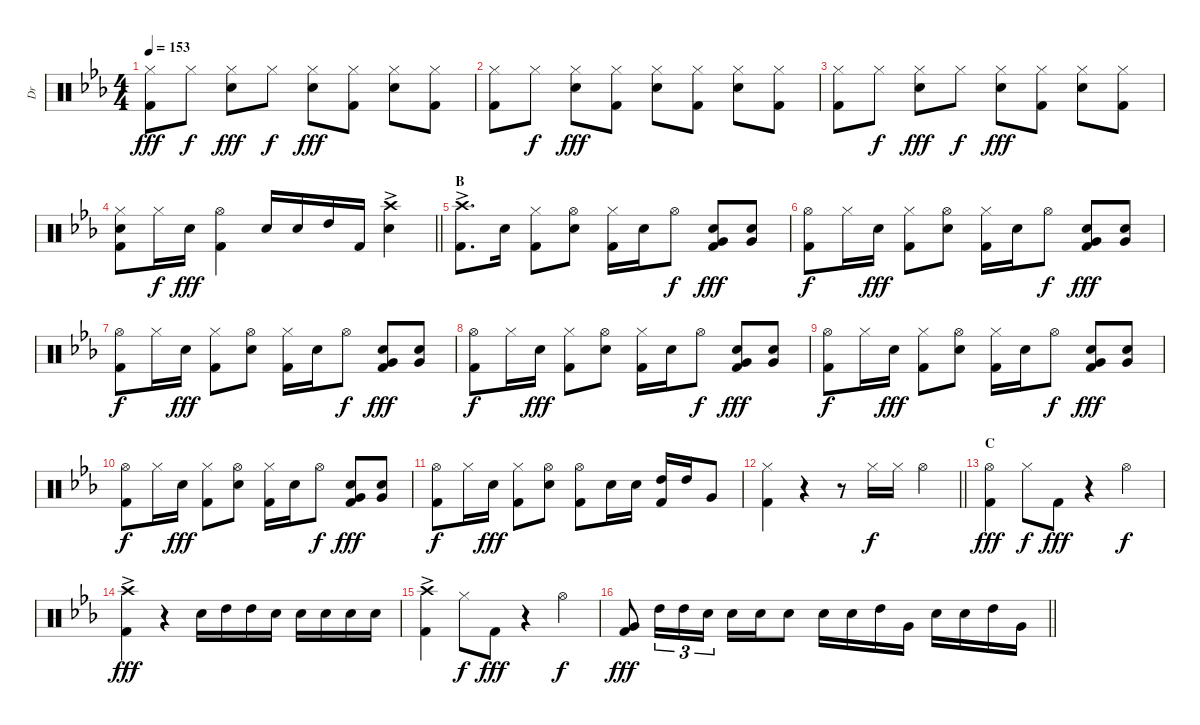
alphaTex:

\track ("Dr" "Dr") {instrument percussion}
\staff {score}
\articulation defaults
\ts (4 4)
\tempo 153
\clef neutral
\ks cminor
("Hi-Hat (closed)" "Kick (hit) 2").8{dy fff} "Hi-Hat (closed)".8{dy f} ("Hi-Hat (closed)" "Electric Snare (hit)").8{dy fff} "Hi-Hat (closed)".8{dy f} ("Hi-Hat (closed)" "Electric Snare (hit)").8{dy fff} ("Hi-Hat (closed)" "Kick (hit) 2").8 ("Hi-Hat (closed)" "Electric Snare (hit)").8 ("Hi-Hat (closed)" "Kick (hit) 2").8 |
("Hi-Hat (closed)" "Kick (hit) 2").8 "Hi-Hat (closed)".8{dy f} ("Hi-Hat (closed)" "Electric Snare (hit)").8{dy fff} ("Hi-Hat (closed)" "Kick (hit) 2").8 ("Hi-Hat (closed)" "Electric Snare (hit)").8 ("Hi-Hat (closed)" "Kick (hit) 2").8 ("Hi-Hat (closed)" "Electric Snare (hit)").8 ("Hi-Hat (closed)" "Kick (hit) 2").8 |
("Hi-Hat (closed)" "Kick (hit) 2").8 "Hi-Hat (closed)".8{dy f} ("Hi-Hat (closed)" "Electric Snare (hit)").8{dy fff} "Hi-Hat (closed)".8{dy f} ("Hi-Hat (closed)" "Electric Snare (hit)").8{dy fff} ("Hi-Hat (closed)" "Kick (hit) 2").8 ("Hi-Hat (closed)" "Electric Snare (hit)").8 ("Hi-Hat (closed)" "Kick (hit) 2").8 |
\barLineRight lightlight
("Hi-Hat (closed)" "Electric Snare (hit)" "Kick (hit) 2").8 "Hi-Hat (closed)".16{dy f} "Electric Snare (hit)".16{dy fff} ("Hi-Hat (open)" "Kick (hit) 2").4 "Electric Snare (hit)".16 "Electric Snare (hit)".16 "High Tom (hit)".16 "Kick (hit) 2".16 ("Crash high (hit)"{ac} "Electric Snare (hit)"{ac}).4 |
\section ("" "B")
("Crash high (hit)"{ac} "Kick (hit) 2"{ac}).8{d} "Electric Snare (hit)".16 ("Hi-Hat (closed)" "Kick (hit) 2").8 ("Hi-Hat (open)" "Electric Snare (hit)").8 ("Hi-Hat (closed)" "Kick (hit) 2").16 "Electric Snare (hit)".16 "Hi-Hat (open)".8{dy f} ("Electric Snare (hit)" "Very Low Tom (hit)" "Kick (hit) 2").8{dy fff} ("Electric Snare (hit)" "Very Low Tom (hit)").8 |
("Hi-Hat (open)" "Kick (hit) 2").8{dy f} "Hi-Hat (closed)".16 "Electric Snare (hit)".16{dy fff} ("Hi-Hat (closed)" "Kick (hit) 2").8 ("Hi-Hat (open)" "Electric Snare (hit)").8 ("Hi-Hat (closed)" "Kick (hit) 2").16 "Electric Snare (hit)".16 "Hi-Hat (open)".8{dy f} ("Electric Snare (hit)" "Very Low Tom (hit)" "Kick (hit) 2").8{dy fff} ("Electric Snare (hit)" "Very Low Tom (hit)").8 |
("Hi-Hat (open)" "Kick (hit) 2").8{dy f} "Hi-Hat (closed)".16 "Electric Snare (hit)".16{dy fff} ("Hi-Hat (closed)" "Kick (hit) 2").8 ("Hi-Hat (open)" "Electric Snare (hit)").8 ("Hi-Hat (closed)" "Kick (hit) 2").16 "Electric Snare (hit)".16 "Hi-Hat (open)".8{dy f} ("Electric Snare (hit)" "Very Low Tom (hit)" "Kick (hit) 2").8{dy fff} ("Electric Snare (hit)" "Very Low Tom (hit)").8 |
("Hi-Hat (open)" "Kick (hit) 2").8{dy f} "Hi-Hat (closed)".16 "Electric Snare (hit)".16{dy fff} ("Hi-Hat (closed)" "Kick (hit) 2").8 ("Hi-Hat (open)" "Electric Snare (hit)").8 ("Hi-Hat (closed)" "Kick (hit) 2").16 "Electric Snare (hit)".16 "Hi-Hat (open)".8{dy f} ("Electric Snare (hit)" "Very Low Tom (hit)" "Kick (hit) 2").8{dy fff} ("Electric Snare (hit)" "Very Low Tom (hit)").8 |
("Hi-Hat (open)" "Kick (hit) 2").8{dy f} "Hi-Hat (closed)".16 "Electric Snare (hit)".16{dy fff} ("Hi-Hat (closed)" "Kick (hit) 2").8 ("Hi-Hat (open)" "Electric Snare (hit)").8 ("Hi-Hat (closed)" "Kick (hit) 2").16 "Electric Snare (hit)".16 "Hi-Hat (open)".8{dy f} ("Electric Snare (hit)" "Very Low Tom (hit)" "Kick (hit) 2").8{dy fff} ("Electric Snare (hit)" "Very Low Tom (hit)").8 |
("Hi-Hat (open)" "Kick (hit) 2").8{dy f} "Hi-Hat (closed)".16 "Electric Snare (hit)".16{dy fff} ("Hi-Hat (closed)" "Kick (hit) 2").8 ("Hi-Hat (open)" "Electric Snare (hit)").8 ("Hi-Hat (closed)" "Kick (hit) 2").16 "Electric Snare (hit)".16 "Hi-Hat (open)".8{dy f} ("Electric Snare (hit)" "Very Low Tom (hit)" "Kick (hit) 2").8{dy fff} ("Electric Snare (hit)" "Very Low Tom (hit)").8 |
("Hi-Hat (open)" "Kick (hit) 2").8{dy f} "Hi-Hat (closed)".16 "Electric Snare (hit)".16{dy fff} ("Hi-Hat (closed)" "Kick (hit) 2").8 ("Hi-Hat (open)" "Electric Snare (hit)").8 ("Hi-Hat (open)" "Kick (hit) 2").8 "Electric Snare (hit)".16 "Electric Snare (hit)".16 ("High Tom (hit)" "Kick (hit) 2").16 "High Tom (hit)".16 "Very Low Tom (hit)".8 |
\barLineRight lightlight
("Hi-Hat (closed)" "Kick (hit) 2").4 r.4 r.8 "Hi-Hat (closed)".16{dy f} "Hi-Hat (closed)".16 "Hi-Hat (open)".4 |
\section ("" "C")
("Hi-Hat (open)" "Kick (hit) 2").4{dy fff} "Hi-Hat (closed)".8{dy f} "Kick (hit) 2".8{dy fff} r.4 "Hi-Hat (open)".4{dy f} |
("Crash high (hit)"{ac} "Kick (hit) 2"{ac}).4{dy fff} r.4 "Electric Snare (hit)".16 "High Tom (hit)".16 "High Tom (hit)".16 "Electric Snare (hit)".16 "Electric Snare (hit)".16 "Electric Snare (hit)".16 "Electric Snare (hit)".16 "Electric Snare (hit)".16 |
("Crash high (hit)"{ac} "Kick (hit) 2"{ac}).4 "Hi-Hat (closed)".8{dy f} "Kick (hit) 2".8{dy fff} r.4 "Hi-Hat (open)".4{dy f} |
\barLineRight lightlight
("Very Low Tom (hit)" "Kick (hit) 2").8{dy fff} "High Tom (hit)".16{tu (3 2)} "High Tom (hit)".16{tu (3 2)} "Electric Snare (hit)".16{tu (3 2)} "Electric Snare (hit)".16 "Electric Snare (hit)".16 "Electric Snare (hit)".8 "Electric Snare (hit)".16 "Electric Snare (hit)".16 "High Tom (hit)".16 "Very Low Tom (hit)".16 "Electric Snare (hit)".16 "Electric Snare (hit)".16 "High Tom (hit)".16 "Very Low Tom (hit)".16
